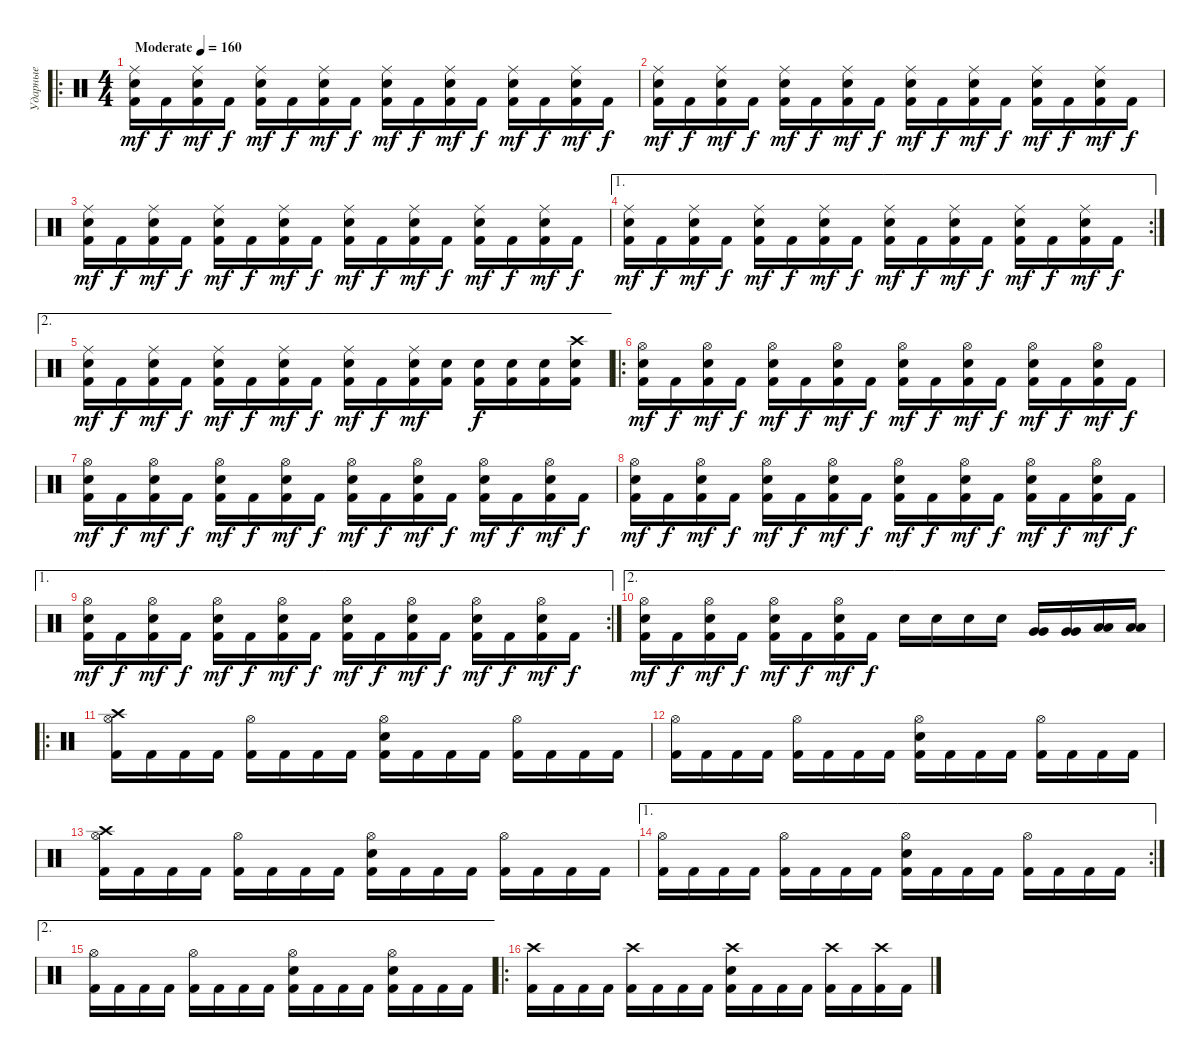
\track ("Ударные" "Ударные") {instrument percussion}
\staff {score}
\articulation defaults
\ro
\ts (4 4)
\tempo (160 "Moderate")
\clef neutral
\ks c
("Ride (middle)" "Snare (hit) 2" "Kick (hit) 2").16{dy mf} "Kick (hit) 2".16{dy f} ("Ride (middle)" "Snare (hit) 2" "Kick (hit) 2").16{dy mf} "Kick (hit) 2".16{dy f} ("Ride (middle)" "Snare (hit) 2" "Kick (hit) 2").16{dy mf} "Kick (hit) 2".16{dy f} ("Ride (middle)" "Snare (hit) 2" "Kick (hit) 2").16{dy mf} "Kick (hit) 2".16{dy f} ("Ride (middle)" "Snare (hit) 2" "Kick (hit) 2").16{dy mf} "Kick (hit) 2".16{dy f} ("Ride (middle)" "Snare (hit) 2" "Kick (hit) 2").16{dy mf} "Kick (hit) 2".16{dy f} ("Ride (middle)" "Snare (hit) 2" "Kick (hit) 2").16{dy mf} "Kick (hit) 2".16{dy f} ("Ride (middle)" "Snare (hit) 2" "Kick (hit) 2").16{dy mf} "Kick (hit) 2".16{dy f} |
("Ride (middle)" "Snare (hit) 2" "Kick (hit) 2").16{dy mf} "Kick (hit) 2".16{dy f} ("Ride (middle)" "Snare (hit) 2" "Kick (hit) 2").16{dy mf} "Kick (hit) 2".16{dy f} ("Ride (middle)" "Snare (hit) 2" "Kick (hit) 2").16{dy mf} "Kick (hit) 2".16{dy f} ("Ride (middle)" "Snare (hit) 2" "Kick (hit) 2").16{dy mf} "Kick (hit) 2".16{dy f} ("Ride (middle)" "Snare (hit) 2" "Kick (hit) 2").16{dy mf} "Kick (hit) 2".16{dy f} ("Ride (middle)" "Snare (hit) 2" "Kick (hit) 2").16{dy mf} "Kick (hit) 2".16{dy f} ("Ride (middle)" "Snare (hit) 2" "Kick (hit) 2").16{dy mf} "Kick (hit) 2".16{dy f} ("Ride (middle)" "Snare (hit) 2" "Kick (hit) 2").16{dy mf} "Kick (hit) 2".16{dy f} |
("Ride (middle)" "Snare (hit) 2" "Kick (hit) 2").16{dy mf} "Kick (hit) 2".16{dy f} ("Ride (middle)" "Snare (hit) 2" "Kick (hit) 2").16{dy mf} "Kick (hit) 2".16{dy f} ("Ride (middle)" "Snare (hit) 2" "Kick (hit) 2").16{dy mf} "Kick (hit) 2".16{dy f} ("Ride (middle)" "Snare (hit) 2" "Kick (hit) 2").16{dy mf} "Kick (hit) 2".16{dy f} ("Ride (middle)" "Snare (hit) 2" "Kick (hit) 2").16{dy mf} "Kick (hit) 2".16{dy f} ("Ride (middle)" "Snare (hit) 2" "Kick (hit) 2").16{dy mf} "Kick (hit) 2".16{dy f} ("Ride (middle)" "Snare (hit) 2" "Kick (hit) 2").16{dy mf} "Kick (hit) 2".16{dy f} ("Ride (middle)" "Snare (hit) 2" "Kick (hit) 2").16{dy mf} "Kick (hit) 2".16{dy f} |
\ae 1
\rc 2
("Ride (middle)" "Snare (hit) 2" "Kick (hit) 2").16{dy mf} "Kick (hit) 2".16{dy f} ("Ride (middle)" "Snare (hit) 2" "Kick (hit) 2").16{dy mf} "Kick (hit) 2".16{dy f} ("Ride (middle)" "Snare (hit) 2" "Kick (hit) 2").16{dy mf} "Kick (hit) 2".16{dy f} ("Ride (middle)" "Snare (hit) 2" "Kick (hit) 2").16{dy mf} "Kick (hit) 2".16{dy f} ("Ride (middle)" "Snare (hit) 2" "Kick (hit) 2").16{dy mf} "Kick (hit) 2".16{dy f} ("Ride (middle)" "Snare (hit) 2" "Kick (hit) 2").16{dy mf} "Kick (hit) 2".16{dy f} ("Ride (middle)" "Snare (hit) 2" "Kick (hit) 2").16{dy mf} "Kick (hit) 2".16{dy f} ("Ride (middle)" "Snare (hit) 2" "Kick (hit) 2").16{dy mf} "Kick (hit) 2".16{dy f} |
\ae 2
("Ride (middle)" "Snare (hit) 2" "Kick (hit) 2").16{dy mf} "Kick (hit) 2".16{dy f} ("Ride (middle)" "Snare (hit) 2" "Kick (hit) 2").16{dy mf} "Kick (hit) 2".16{dy f} ("Ride (middle)" "Snare (hit) 2" "Kick (hit) 2").16{dy mf} "Kick (hit) 2".16{dy f} ("Ride (middle)" "Snare (hit) 2" "Kick (hit) 2").16{dy mf} "Kick (hit) 2".16{dy f} ("Ride (middle)" "Snare (hit) 2" "Kick (hit) 2").16{dy mf} "Kick (hit) 2".16{dy f} ("Ride (middle)" "Snare (hit) 2" "Kick (hit) 2").16{dy mf} ("Snare (hit) 2" "Kick (hit) 2").16 ("Snare (hit) 2" "Kick (hit) 2").16{dy f} ("Snare (hit) 2" "Kick (hit) 2").16 ("Snare (hit) 2" "Kick (hit) 2").16 ("Crash high (hit)" "Snare (hit) 2" "Kick (hit) 2").16 |
\ro
("Hi-Hat (open)" "Snare (hit) 2" "Kick (hit) 2").16{dy mf} "Kick (hit) 2".16{dy f} ("Hi-Hat (open)" "Snare (hit) 2" "Kick (hit) 2").16{dy mf} "Kick (hit) 2".16{dy f} ("Hi-Hat (open)" "Snare (hit) 2" "Kick (hit) 2").16{dy mf} "Kick (hit) 2".16{dy f} ("Hi-Hat (open)" "Snare (hit) 2" "Kick (hit) 2").16{dy mf} "Kick (hit) 2".16{dy f} ("Hi-Hat (open)" "Snare (hit) 2" "Kick (hit) 2").16{dy mf} "Kick (hit) 2".16{dy f} ("Hi-Hat (open)" "Snare (hit) 2" "Kick (hit) 2").16{dy mf} "Kick (hit) 2".16{dy f} ("Hi-Hat (open)" "Snare (hit) 2" "Kick (hit) 2").16{dy mf} "Kick (hit) 2".16{dy f} ("Hi-Hat (open)" "Snare (hit) 2" "Kick (hit) 2").16{dy mf} "Kick (hit) 2".16{dy f} |
("Hi-Hat (open)" "Snare (hit) 2" "Kick (hit) 2").16{dy mf} "Kick (hit) 2".16{dy f} ("Hi-Hat (open)" "Snare (hit) 2" "Kick (hit) 2").16{dy mf} "Kick (hit) 2".16{dy f} ("Hi-Hat (open)" "Snare (hit) 2" "Kick (hit) 2").16{dy mf} "Kick (hit) 2".16{dy f} ("Hi-Hat (open)" "Snare (hit) 2" "Kick (hit) 2").16{dy mf} "Kick (hit) 2".16{dy f} ("Hi-Hat (open)" "Snare (hit) 2" "Kick (hit) 2").16{dy mf} "Kick (hit) 2".16{dy f} ("Hi-Hat (open)" "Snare (hit) 2" "Kick (hit) 2").16{dy mf} "Kick (hit) 2".16{dy f} ("Hi-Hat (open)" "Snare (hit) 2" "Kick (hit) 2").16{dy mf} "Kick (hit) 2".16{dy f} ("Hi-Hat (open)" "Snare (hit) 2" "Kick (hit) 2").16{dy mf} "Kick (hit) 2".16{dy f} |
("Hi-Hat (open)" "Snare (hit) 2" "Kick (hit) 2").16{dy mf} "Kick (hit) 2".16{dy f} ("Hi-Hat (open)" "Snare (hit) 2" "Kick (hit) 2").16{dy mf} "Kick (hit) 2".16{dy f} ("Hi-Hat (open)" "Snare (hit) 2" "Kick (hit) 2").16{dy mf} "Kick (hit) 2".16{dy f} ("Hi-Hat (open)" "Snare (hit) 2" "Kick (hit) 2").16{dy mf} "Kick (hit) 2".16{dy f} ("Hi-Hat (open)" "Snare (hit) 2" "Kick (hit) 2").16{dy mf} "Kick (hit) 2".16{dy f} ("Hi-Hat (open)" "Snare (hit) 2" "Kick (hit) 2").16{dy mf} "Kick (hit) 2".16{dy f} ("Hi-Hat (open)" "Snare (hit) 2" "Kick (hit) 2").16{dy mf} "Kick (hit) 2".16{dy f} ("Hi-Hat (open)" "Snare (hit) 2" "Kick (hit) 2").16{dy mf} "Kick (hit) 2".16{dy f} |
\ae 1
\rc 2
("Hi-Hat (open)" "Snare (hit) 2" "Kick (hit) 2").16{dy mf} "Kick (hit) 2".16{dy f} ("Hi-Hat (open)" "Snare (hit) 2" "Kick (hit) 2").16{dy mf} "Kick (hit) 2".16{dy f} ("Hi-Hat (open)" "Snare (hit) 2" "Kick (hit) 2").16{dy mf} "Kick (hit) 2".16{dy f} ("Hi-Hat (open)" "Snare (hit) 2" "Kick (hit) 2").16{dy mf} "Kick (hit) 2".16{dy f} ("Hi-Hat (open)" "Snare (hit) 2" "Kick (hit) 2").16{dy mf} "Kick (hit) 2".16{dy f} ("Hi-Hat (open)" "Snare (hit) 2" "Kick (hit) 2").16{dy mf} "Kick (hit) 2".16{dy f} ("Hi-Hat (open)" "Snare (hit) 2" "Kick (hit) 2").16{dy mf} "Kick (hit) 2".16{dy f} ("Hi-Hat (open)" "Snare (hit) 2" "Kick (hit) 2").16{dy mf} "Kick (hit) 2".16{dy f} |
\ae 2
("Hi-Hat (open)" "Snare (hit) 2" "Kick (hit) 2").16{dy mf} "Kick (hit) 2".16{dy f} ("Hi-Hat (open)" "Snare (hit) 2" "Kick (hit) 2").16{dy mf} "Kick (hit) 2".16{dy f} ("Hi-Hat (open)" "Snare (hit) 2" "Kick (hit) 2").16{dy mf} "Kick (hit) 2".16{dy f} ("Hi-Hat (open)" "Snare (hit) 2" "Kick (hit) 2").16{dy mf} "Kick (hit) 2".16{dy f} "Snare (hit) 2".16 "Snare (hit) 2".16 "Snare (hit) 2".16 "Snare (hit) 2".16 ("Very Low Tom (hit)" "Very Low Tom (hit)").16 ("Very Low Tom (hit)" "Very Low Tom (hit)").16 ("Low Floor Tom (hit)" "Low Floor Tom (hit)").16 ("Low Floor Tom (hit)" "Low Floor Tom (hit)").16 |
\ro
("Crash high (hit)" "Hi-Hat (open)" "Kick (hit) 2").16 "Kick (hit) 2".16 "Kick (hit) 2".16 "Kick (hit) 2".16 ("Hi-Hat (open)" "Kick (hit) 2").16 "Kick (hit) 2".16 "Kick (hit) 2".16 "Kick (hit) 2".16 ("Hi-Hat (open)" "Snare (hit) 2" "Kick (hit) 2").16 "Kick (hit) 2".16 "Kick (hit) 2".16 "Kick (hit) 2".16 ("Hi-Hat (open)" "Kick (hit) 2").16 "Kick (hit) 2".16 "Kick (hit) 2".16 "Kick (hit) 2".16 |
("Hi-Hat (open)" "Kick (hit) 2").16 "Kick (hit) 2".16 "Kick (hit) 2".16 "Kick (hit) 2".16 ("Hi-Hat (open)" "Kick (hit) 2").16 "Kick (hit) 2".16 "Kick (hit) 2".16 "Kick (hit) 2".16 ("Hi-Hat (open)" "Snare (hit) 2" "Kick (hit) 2").16 "Kick (hit) 2".16 "Kick (hit) 2".16 "Kick (hit) 2".16 ("Hi-Hat (open)" "Kick (hit) 2").16 "Kick (hit) 2".16 "Kick (hit) 2".16 "Kick (hit) 2".16 |
("Crash high (hit)" "Hi-Hat (open)" "Kick (hit) 2").16 "Kick (hit) 2".16 "Kick (hit) 2".16 "Kick (hit) 2".16 ("Hi-Hat (open)" "Kick (hit) 2").16 "Kick (hit) 2".16 "Kick (hit) 2".16 "Kick (hit) 2".16 ("Hi-Hat (open)" "Snare (hit) 2" "Kick (hit) 2").16 "Kick (hit) 2".16 "Kick (hit) 2".16 "Kick (hit) 2".16 ("Hi-Hat (open)" "Kick (hit) 2").16 "Kick (hit) 2".16 "Kick (hit) 2".16 "Kick (hit) 2".16 |
\ae 1
\rc 2
("Hi-Hat (open)" "Kick (hit) 2").16 "Kick (hit) 2".16 "Kick (hit) 2".16 "Kick (hit) 2".16 ("Hi-Hat (open)" "Kick (hit) 2").16 "Kick (hit) 2".16 "Kick (hit) 2".16 "Kick (hit) 2".16 ("Hi-Hat (open)" "Snare (hit) 2" "Kick (hit) 2").16 "Kick (hit) 2".16 "Kick (hit) 2".16 "Kick (hit) 2".16 ("Hi-Hat (open)" "Kick (hit) 2").16 "Kick (hit) 2".16 "Kick (hit) 2".16 "Kick (hit) 2".16 |
\ae 2
("Hi-Hat (open)" "Kick (hit) 2").16 "Kick (hit) 2".16 "Kick (hit) 2".16 "Kick (hit) 2".16 ("Hi-Hat (open)" "Kick (hit) 2").16 "Kick (hit) 2".16 "Kick (hit) 2".16 "Kick (hit) 2".16 ("Hi-Hat (open)" "Snare (hit) 2" "Kick (hit) 2").16 "Kick (hit) 2".16 "Kick (hit) 2".16 "Kick (hit) 2".16 ("Hi-Hat (open)" "Snare (hit) 2" "Kick (hit) 2").16 "Kick (hit) 2".16 "Kick (hit) 2".16 "Kick (hit) 2".16 |
\ro
("Crash high (hit)" "Kick (hit) 2").16 "Kick (hit) 2".16 "Kick (hit) 2".16 "Kick (hit) 2".16 ("Crash high (hit)" "Kick (hit) 2").16 "Kick (hit) 2".16 "Kick (hit) 2".16 "Kick (hit) 2".16 ("Crash high (hit)" "Snare (hit) 2" "Kick (hit) 2").16 "Kick (hit) 2".16 "Kick (hit) 2".16 "Kick (hit) 2".16 ("Crash high (hit)" "Kick (hit) 2").16 "Kick (hit) 2".16 ("Crash high (hit)" "Kick (hit) 2").16 "Kick (hit) 2".16
